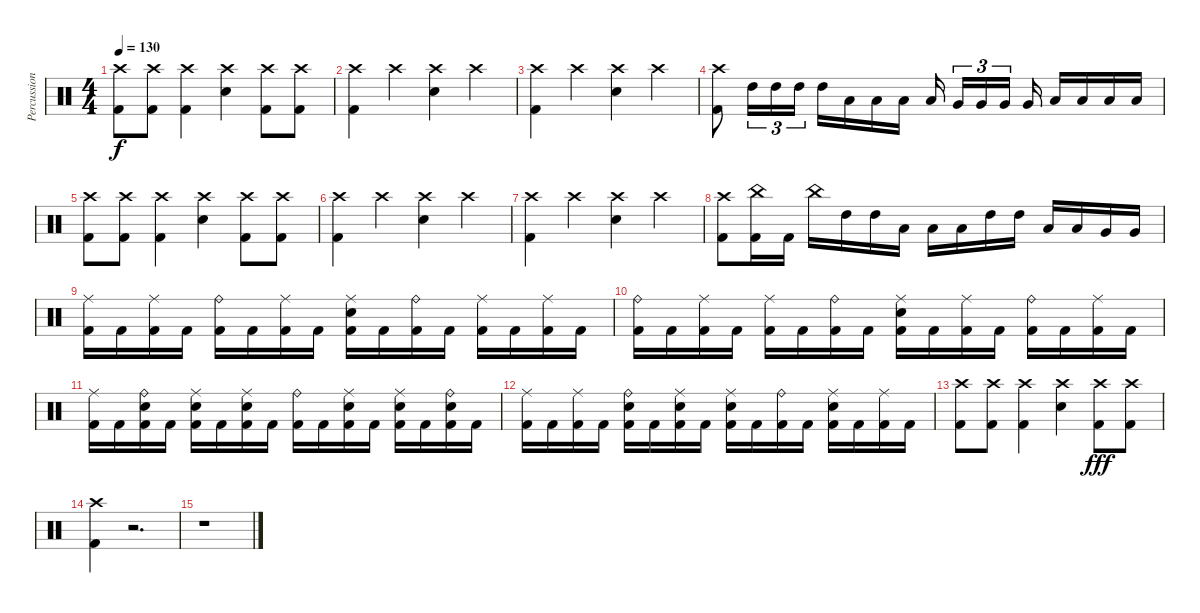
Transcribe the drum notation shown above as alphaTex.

\track ("Percussion" "Percussion") {instrument percussion}
\staff {score}
\articulation defaults
\ts (4 4)
\tempo 130
\clef neutral
\ks c
("Crash high (hit)" "Kick (hit) 2").8{dy f} ("Crash high (hit)" "Kick (hit) 2").8 ("Crash high (hit)" "Kick (hit) 2").4 ("Crash high (hit)" "Electric Snare (hit)").4 ("Crash high (hit)" "Kick (hit) 2").8 ("Crash high (hit)" "Kick (hit) 2").8 |
("Crash high (hit)" "Kick (hit) 2").4 "Crash high (hit)".4 ("Crash high (hit)" "Electric Snare (hit)").4 "Crash high (hit)".4 |
("Crash high (hit)" "Kick (hit) 2").4 "Crash high (hit)".4 ("Crash high (hit)" "Electric Snare (hit)").4 "Crash high (hit)".4 |
("Crash high (hit)" "Kick (hit) 2").8 "High Tom (hit)".16{tu (3 2)} "High Tom (hit)".16{tu (3 2)} "High Tom (hit)".16{tu (3 2)} "High Tom (hit)".16 "Low Tom (hit)".16 "Low Tom (hit)".16 "Low Tom (hit)".16 "Low Tom (hit)".16{beam splitsecondary} "Very Low Tom (hit)".16{tu (3 2)} "Very Low Tom (hit)".16{tu (3 2)} "Very Low Tom (hit)".16{tu (3 2) beam splitsecondary} "Very Low Tom (hit)".16 "Low Floor Tom (hit)".16 "Low Floor Tom (hit)".16 "Low Floor Tom (hit)".16 "Low Floor Tom (hit)".16 |
("Crash high (hit)" "Kick (hit) 2").8 ("Crash high (hit)" "Kick (hit) 2").8 ("Crash high (hit)" "Kick (hit) 2").4 ("Crash high (hit)" "Electric Snare (hit)").4 ("Crash high (hit)" "Kick (hit) 2").8 ("Crash high (hit)" "Kick (hit) 2").8 |
("Crash high (hit)" "Kick (hit) 2").4 "Crash high (hit)".4 ("Crash high (hit)" "Electric Snare (hit)").4 "Crash high (hit)".4 |
("Crash high (hit)" "Kick (hit) 2").4 "Crash high (hit)".4 ("Crash high (hit)" "Electric Snare (hit)").4 "Crash high (hit)".4 |
("Crash high (hit)" "Kick (hit) 2").8 ("China (hit)" "Kick (hit) 2").16 "Kick (hit) 2".16 "China (hit)".16 "High Tom (hit)".16 "High Tom (hit)".16 "Low Tom (hit)".16 "Low Tom (hit)".16 "Low Tom (hit)".16 "High Tom (hit)".16 "High Tom (hit)".16 "Low Tom (hit)".16 "Low Tom (hit)".16 "Very Low Tom (hit)".16 "Very Low Tom (hit)".16 |
("Ride (middle)" "Kick (hit) 2").16 "Kick (hit) 2".16 ("Ride (middle)" "Kick (hit) 2").16 "Kick (hit) 2".16 ("Ride (bell)" "Kick (hit) 2").16 "Kick (hit) 2".16 ("Ride (middle)" "Kick (hit) 2").16 "Kick (hit) 2".16 ("Ride (middle)" "Electric Snare (hit)" "Kick (hit) 2").16 "Kick (hit) 2".16 ("Ride (bell)" "Kick (hit) 2").16 "Kick (hit) 2".16 ("Ride (middle)" "Kick (hit) 2").16 "Kick (hit) 2".16 ("Ride (middle)" "Kick (hit) 2").16 "Kick (hit) 2".16 |
("Ride (bell)" "Kick (hit) 2").16 "Kick (hit) 2".16 ("Ride (middle)" "Kick (hit) 2").16 "Kick (hit) 2".16 ("Ride (middle)" "Kick (hit) 2").16 "Kick (hit) 2".16 ("Ride (bell)" "Kick (hit) 2").16 "Kick (hit) 2".16 ("Ride (middle)" "Electric Snare (hit)" "Kick (hit) 2").16 "Kick (hit) 2".16 ("Ride (middle)" "Kick (hit) 2").16 "Kick (hit) 2".16 ("Ride (bell)" "Kick (hit) 2").16 "Kick (hit) 2".16 ("Ride (middle)" "Kick (hit) 2").16 "Kick (hit) 2".16 |
("Ride (middle)" "Kick (hit) 2").16 "Kick (hit) 2".16 ("Ride (bell)" "Electric Snare (hit)" "Kick (hit) 2").16 "Kick (hit) 2".16 ("Ride (middle)" "Electric Snare (hit)" "Kick (hit) 2").16 "Kick (hit) 2".16 ("Ride (middle)" "Electric Snare (hit)" "Kick (hit) 2").16 "Kick (hit) 2".16 ("Ride (bell)" "Kick (hit) 2").16 "Kick (hit) 2".16 ("Ride (middle)" "Electric Snare (hit)" "Kick (hit) 2").16 "Kick (hit) 2".16 ("Ride (middle)" "Electric Snare (hit)" "Kick (hit) 2").16 "Kick (hit) 2".16 ("Ride (bell)" "Electric Snare (hit)" "Kick (hit) 2").16 "Kick (hit) 2".16 |
("Ride (middle)" "Kick (hit) 2").16 "Kick (hit) 2".16 ("Ride (middle)" "Kick (hit) 2").16 "Kick (hit) 2".16 ("Ride (bell)" "Electric Snare (hit)" "Kick (hit) 2").16 "Kick (hit) 2".16 ("Ride (middle)" "Electric Snare (hit)" "Kick (hit) 2").16 "Kick (hit) 2".16 ("Ride (middle)" "Electric Snare (hit)" "Kick (hit) 2").16 "Kick (hit) 2".16 ("Ride (bell)" "Kick (hit) 2").16 "Kick (hit) 2".16 ("Ride (middle)" "Electric Snare (hit)" "Kick (hit) 2").16 "Kick (hit) 2".16 ("Ride (middle)" "Kick (hit) 2").16 "Kick (hit) 2".16 |
("Crash high (hit)" "Kick (hit) 2").8 ("Crash high (hit)" "Kick (hit) 2").8 ("Crash high (hit)" "Kick (hit) 2").4 ("Crash high (hit)" "Electric Snare (hit)").4 ("Crash high (hit)" "Kick (hit) 2").8{dy fff} ("Crash high (hit)" "Kick (hit) 2").8 |
("Crash high (hit)" "Kick (hit) 2").4 r.2{d} |
r.1
